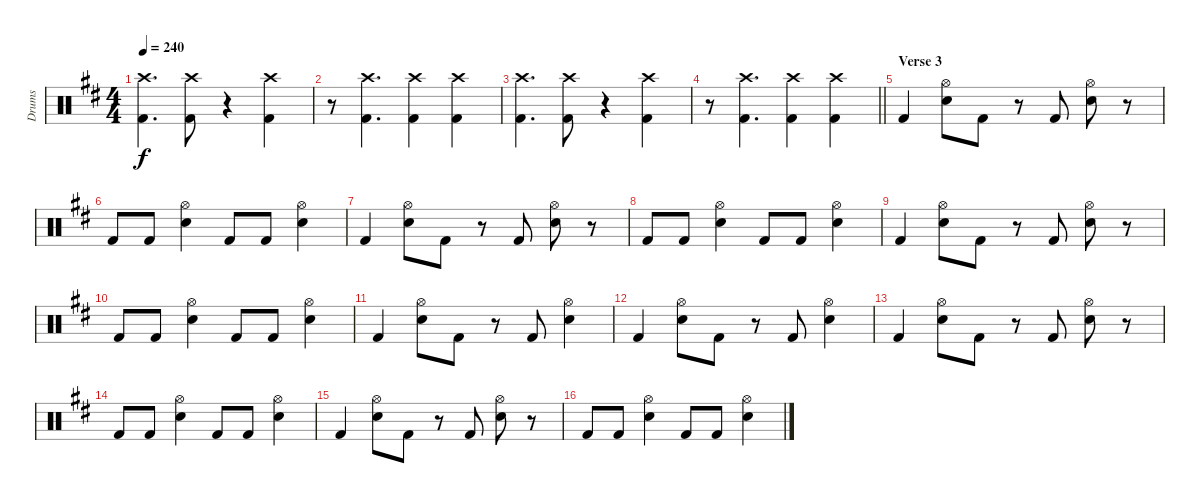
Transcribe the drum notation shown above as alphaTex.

\track ("Drums" "Drums") {instrument percussion}
\staff {score}
\articulation defaults
\ts (4 4)
\tempo 240
\clef neutral
\ks d
("Crash high (hit)" "Kick (hit) 2").4{d dy f} ("Crash high (hit)" "Kick (hit) 2").8 r.4 ("Crash high (hit)" "Kick (hit) 2").4 |
r.8 ("Crash high (hit)" "Kick (hit) 2").4{d} ("Crash high (hit)" "Kick (hit) 2").4 ("Crash high (hit)" "Kick (hit) 2").4 |
("Crash high (hit)" "Kick (hit) 2").4{d} ("Crash high (hit)" "Kick (hit) 2").8 r.4 ("Crash high (hit)" "Kick (hit) 2").4 |
\barLineRight lightlight
r.8 ("Crash high (hit)" "Kick (hit) 2").4{d} ("Crash high (hit)" "Kick (hit) 2").4 ("Crash high (hit)" "Kick (hit) 2").4 |
\section ("" "Verse 3")
"Kick (hit) 2".4 ("Hi-Hat (open)" "Electric Snare (hit)").8 "Kick (hit) 2".8 r.8 "Kick (hit) 2".8 ("Hi-Hat (open)" "Electric Snare (hit)").8 r.8 |
"Kick (hit) 2".8 "Kick (hit) 2".8 ("Hi-Hat (open)" "Electric Snare (hit)").4 "Kick (hit) 2".8 "Kick (hit) 2".8 ("Hi-Hat (open)" "Electric Snare (hit)").4 |
"Kick (hit) 2".4 ("Hi-Hat (open)" "Electric Snare (hit)").8 "Kick (hit) 2".8 r.8 "Kick (hit) 2".8 ("Hi-Hat (open)" "Electric Snare (hit)").8 r.8 |
"Kick (hit) 2".8 "Kick (hit) 2".8 ("Hi-Hat (open)" "Electric Snare (hit)").4 "Kick (hit) 2".8 "Kick (hit) 2".8 ("Hi-Hat (open)" "Electric Snare (hit)").4 |
"Kick (hit) 2".4 ("Hi-Hat (open)" "Electric Snare (hit)").8 "Kick (hit) 2".8 r.8 "Kick (hit) 2".8 ("Hi-Hat (open)" "Electric Snare (hit)").8 r.8 |
"Kick (hit) 2".8 "Kick (hit) 2".8 ("Hi-Hat (open)" "Electric Snare (hit)").4 "Kick (hit) 2".8 "Kick (hit) 2".8 ("Hi-Hat (open)" "Electric Snare (hit)").4 |
"Kick (hit) 2".4 ("Hi-Hat (open)" "Electric Snare (hit)").8 "Kick (hit) 2".8 r.8 "Kick (hit) 2".8 ("Hi-Hat (open)" "Electric Snare (hit)").4 |
"Kick (hit) 2".4 ("Hi-Hat (open)" "Electric Snare (hit)").8 "Kick (hit) 2".8 r.8 "Kick (hit) 2".8 ("Hi-Hat (open)" "Electric Snare (hit)").4 |
"Kick (hit) 2".4 ("Hi-Hat (open)" "Electric Snare (hit)").8 "Kick (hit) 2".8 r.8 "Kick (hit) 2".8 ("Hi-Hat (open)" "Electric Snare (hit)").8 r.8 |
"Kick (hit) 2".8 "Kick (hit) 2".8 ("Hi-Hat (open)" "Electric Snare (hit)").4 "Kick (hit) 2".8 "Kick (hit) 2".8 ("Hi-Hat (open)" "Electric Snare (hit)").4 |
"Kick (hit) 2".4 ("Hi-Hat (open)" "Electric Snare (hit)").8 "Kick (hit) 2".8 r.8 "Kick (hit) 2".8 ("Hi-Hat (open)" "Electric Snare (hit)").8 r.8 |
"Kick (hit) 2".8 "Kick (hit) 2".8 ("Hi-Hat (open)" "Electric Snare (hit)").4 "Kick (hit) 2".8 "Kick (hit) 2".8 ("Hi-Hat (open)" "Electric Snare (hit)").4
